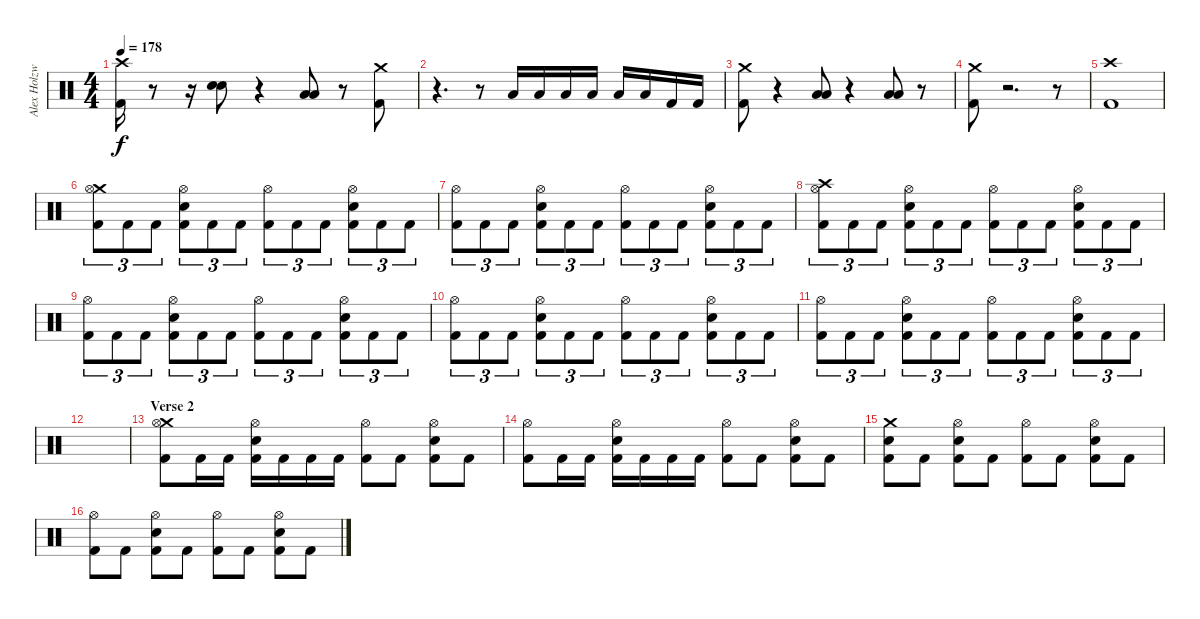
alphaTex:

\track ("Alex Holzwarth" "Alex Holzw") {instrument percussion}
\staff {score}
\articulation defaults
\ts (4 4)
\tempo 178
\clef neutral
\ks c
("Crash high (hit)" "Kick (hit) 2").16{dy f} r.8 r.16 ("Snare (hit) 2" "Snare (hit) 2").8 r.4 ("Low Tom (hit)" "Low Tom (hit)").8 r.8 ("Crash medium (hit)" "Kick (hit) 2").8 |
r.4{d} r.8 "Low Tom (hit)".16 "Low Tom (hit)".16 "Low Tom (hit)".16 "Low Floor Tom (hit)".16 "Low Floor Tom (hit)".16 "Low Floor Tom (hit)".16 "Kick (hit) 2".16 "Kick (hit) 2".16 |
("Crash medium (hit)" "Kick (hit) 2").8 r.4 ("Low Tom (hit)" "Low Tom (hit)").8 r.4 ("Low Floor Tom (hit)" "Low Floor Tom (hit)").8 r.8 |
("Crash medium (hit)" "Kick (hit) 2").8 r.2{d} r.8 |
("Crash high (hit)" "Kick (hit) 2").1 |
("Crash medium (hit)" "Hi-Hat (open)" "Kick (hit) 2").8{tu (3 2)} "Kick (hit) 2".8{tu (3 2)} "Kick (hit) 2".8{tu (3 2)} ("Hi-Hat (open)" "Snare (hit) 2" "Kick (hit) 2").8{tu (3 2)} "Kick (hit) 2".8{tu (3 2)} "Kick (hit) 2".8{tu (3 2)} ("Hi-Hat (open)" "Kick (hit) 2").8{tu (3 2)} "Kick (hit) 2".8{tu (3 2)} "Kick (hit) 2".8{tu (3 2)} ("Hi-Hat (open)" "Snare (hit) 2" "Kick (hit) 2").8{tu (3 2)} "Kick (hit) 2".8{tu (3 2)} "Kick (hit) 2".8{tu (3 2)} |
("Hi-Hat (open)" "Kick (hit) 2").8{tu (3 2)} "Kick (hit) 2".8{tu (3 2)} "Kick (hit) 2".8{tu (3 2)} ("Hi-Hat (open)" "Snare (hit) 2" "Kick (hit) 2").8{tu (3 2)} "Kick (hit) 2".8{tu (3 2)} "Kick (hit) 2".8{tu (3 2)} ("Hi-Hat (open)" "Kick (hit) 2").8{tu (3 2)} "Kick (hit) 2".8{tu (3 2)} "Kick (hit) 2".8{tu (3 2)} ("Hi-Hat (open)" "Snare (hit) 2" "Kick (hit) 2").8{tu (3 2)} "Kick (hit) 2".8{tu (3 2)} "Kick (hit) 2".8{tu (3 2)} |
("Crash high (hit)" "Hi-Hat (open)" "Kick (hit) 2").8{tu (3 2)} "Kick (hit) 2".8{tu (3 2)} "Kick (hit) 2".8{tu (3 2)} ("Hi-Hat (open)" "Snare (hit) 2" "Kick (hit) 2").8{tu (3 2)} "Kick (hit) 2".8{tu (3 2)} "Kick (hit) 2".8{tu (3 2)} ("Hi-Hat (open)" "Kick (hit) 2").8{tu (3 2)} "Kick (hit) 2".8{tu (3 2)} "Kick (hit) 2".8{tu (3 2)} ("Hi-Hat (open)" "Snare (hit) 2" "Kick (hit) 2").8{tu (3 2)} "Kick (hit) 2".8{tu (3 2)} "Kick (hit) 2".8{tu (3 2)} |
("Hi-Hat (open)" "Kick (hit) 2").8{tu (3 2)} "Kick (hit) 2".8{tu (3 2)} "Kick (hit) 2".8{tu (3 2)} ("Hi-Hat (open)" "Snare (hit) 2" "Kick (hit) 2").8{tu (3 2)} "Kick (hit) 2".8{tu (3 2)} "Kick (hit) 2".8{tu (3 2)} ("Hi-Hat (open)" "Kick (hit) 2").8{tu (3 2)} "Kick (hit) 2".8{tu (3 2)} "Kick (hit) 2".8{tu (3 2)} ("Hi-Hat (open)" "Snare (hit) 2" "Kick (hit) 2").8{tu (3 2)} "Kick (hit) 2".8{tu (3 2)} "Kick (hit) 2".8{tu (3 2)} |
("Hi-Hat (open)" "Kick (hit) 2").8{tu (3 2)} "Kick (hit) 2".8{tu (3 2)} "Kick (hit) 2".8{tu (3 2)} ("Hi-Hat (open)" "Snare (hit) 2" "Kick (hit) 2").8{tu (3 2)} "Kick (hit) 2".8{tu (3 2)} "Kick (hit) 2".8{tu (3 2)} ("Hi-Hat (open)" "Kick (hit) 2").8{tu (3 2)} "Kick (hit) 2".8{tu (3 2)} "Kick (hit) 2".8{tu (3 2)} ("Hi-Hat (open)" "Snare (hit) 2" "Kick (hit) 2").8{tu (3 2)} "Kick (hit) 2".8{tu (3 2)} "Kick (hit) 2".8{tu (3 2)} |
("Hi-Hat (open)" "Kick (hit) 2").8{tu (3 2)} "Kick (hit) 2".8{tu (3 2)} "Kick (hit) 2".8{tu (3 2)} ("Hi-Hat (open)" "Snare (hit) 2" "Kick (hit) 2").8{tu (3 2)} "Kick (hit) 2".8{tu (3 2)} "Kick (hit) 2".8{tu (3 2)} ("Hi-Hat (open)" "Kick (hit) 2").8{tu (3 2)} "Kick (hit) 2".8{tu (3 2)} "Kick (hit) 2".8{tu (3 2)} ("Hi-Hat (open)" "Snare (hit) 2" "Kick (hit) 2").8{tu (3 2)} "Kick (hit) 2".8{tu (3 2)} "Kick (hit) 2".8{tu (3 2)} |
|
\section ("" "Verse 2")
("Crash medium (hit)" "Hi-Hat (open)" "Kick (hit) 2").8 "Kick (hit) 2".16 "Kick (hit) 2".16 ("Hi-Hat (open)" "Snare (hit) 2" "Kick (hit) 2").16 "Kick (hit) 2".16 "Kick (hit) 2".16 "Kick (hit) 2".16 ("Hi-Hat (open)" "Kick (hit) 2").8 "Kick (hit) 2".8 ("Hi-Hat (open)" "Snare (hit) 2" "Kick (hit) 2").8 "Kick (hit) 2".8 |
("Hi-Hat (open)" "Kick (hit) 2").8 "Kick (hit) 2".16 "Kick (hit) 2".16 ("Hi-Hat (open)" "Snare (hit) 2" "Kick (hit) 2").16 "Kick (hit) 2".16 "Kick (hit) 2".16 "Kick (hit) 2".16 ("Hi-Hat (open)" "Kick (hit) 2").8 "Kick (hit) 2".8 ("Hi-Hat (open)" "Snare (hit) 2" "Kick (hit) 2").8 "Kick (hit) 2".8 |
("Crash medium (hit)" "Snare (hit) 2" "Kick (hit) 2").8 "Kick (hit) 2".8 ("Hi-Hat (open)" "Snare (hit) 2" "Kick (hit) 2").8 "Kick (hit) 2".8 ("Hi-Hat (open)" "Kick (hit) 2").8 "Kick (hit) 2".8 ("Hi-Hat (open)" "Snare (hit) 2" "Kick (hit) 2").8 "Kick (hit) 2".8 |
("Hi-Hat (open)" "Kick (hit) 2").8 "Kick (hit) 2".8 ("Hi-Hat (open)" "Snare (hit) 2" "Kick (hit) 2").8 "Kick (hit) 2".8 ("Hi-Hat (open)" "Kick (hit) 2").8 "Kick (hit) 2".8 ("Hi-Hat (open)" "Snare (hit) 2" "Kick (hit) 2").8 "Kick (hit) 2".8
